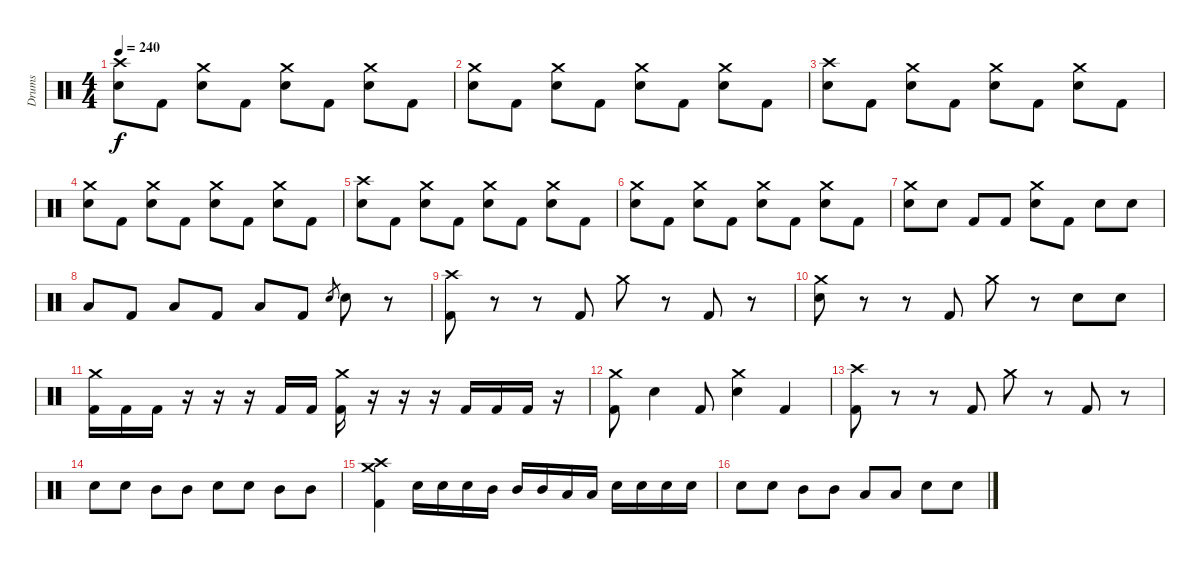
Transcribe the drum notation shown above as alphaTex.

\track ("Drums" "Drums") {instrument percussion}
\staff {score}
\articulation defaults
\ts (4 4)
\tempo 240
\clef neutral
\ks c
("Electric Snare (hit)" "Crash high (hit)").8{dy f} "Kick (hit) 2".8 ("Electric Snare (hit)" "Crash medium (hit)").8 "Kick (hit) 2".8 ("Electric Snare (hit)" "Crash medium (hit)").8 "Kick (hit) 2".8 ("Electric Snare (hit)" "Crash medium (hit)").8 "Kick (hit) 2".8 |
("Electric Snare (hit)" "Crash medium (hit)").8 "Kick (hit) 2".8 ("Electric Snare (hit)" "Crash medium (hit)").8 "Kick (hit) 2".8 ("Electric Snare (hit)" "Crash medium (hit)").8 "Kick (hit) 2".8 ("Electric Snare (hit)" "Crash medium (hit)").8 "Kick (hit) 2".8 |
("Electric Snare (hit)" "Crash high (hit)").8 "Kick (hit) 2".8 ("Electric Snare (hit)" "Crash medium (hit)").8 "Kick (hit) 2".8 ("Electric Snare (hit)" "Crash medium (hit)").8 "Kick (hit) 2".8 ("Electric Snare (hit)" "Crash medium (hit)").8 "Kick (hit) 2".8 |
("Electric Snare (hit)" "Crash medium (hit)").8 "Kick (hit) 2".8 ("Electric Snare (hit)" "Crash medium (hit)").8 "Kick (hit) 2".8 ("Electric Snare (hit)" "Crash medium (hit)").8 "Kick (hit) 2".8 ("Electric Snare (hit)" "Crash medium (hit)").8 "Kick (hit) 2".8 |
("Electric Snare (hit)" "Crash high (hit)").8 "Kick (hit) 2".8 ("Electric Snare (hit)" "Crash medium (hit)").8 "Kick (hit) 2".8 ("Electric Snare (hit)" "Crash medium (hit)").8 "Kick (hit) 2".8 ("Electric Snare (hit)" "Crash medium (hit)").8 "Kick (hit) 2".8 |
("Electric Snare (hit)" "Crash medium (hit)").8 "Kick (hit) 2".8 ("Electric Snare (hit)" "Crash medium (hit)").8 "Kick (hit) 2".8 ("Electric Snare (hit)" "Crash medium (hit)").8 "Kick (hit) 2".8 ("Electric Snare (hit)" "Crash medium (hit)").8 "Kick (hit) 2".8 |
("Electric Snare (hit)" "Crash medium (hit)").8 "Electric Snare (hit)".8 "Kick (hit) 2".8 "Kick (hit) 2".8 ("Electric Snare (hit)" "Crash medium (hit)").8 "Kick (hit) 2".8 "Electric Snare (hit)".8 "Electric Snare (hit)".8 |
"Low Tom (hit)".8 "Kick (hit) 2".8 "Low Tom (hit)".8 "Kick (hit) 2".8 "Low Tom (hit)".8 "Kick (hit) 2".8 "Electric Snare (hit)".8{gr} "Electric Snare (hit)".8 r.8 |
("Kick (hit) 2" "Crash high (hit)").8 r.8 r.8 "Kick (hit) 2".8 "Crash medium (hit)".8 r.8 "Kick (hit) 2".8 r.8 |
("Electric Snare (hit)" "Crash medium (hit)").8 r.8 r.8 "Kick (hit) 2".8 "Crash medium (hit)".8 r.8 "Electric Snare (hit)".8 "Electric Snare (hit)".8 |
("Kick (hit) 2" "Crash medium (hit)").16 "Kick (hit) 2".16 "Kick (hit) 2".16 r.16 r.16 r.16 "Kick (hit) 2".16 "Kick (hit) 2".16 ("Kick (hit) 2" "Crash medium (hit)").16 r.16 r.16 r.16 "Kick (hit) 2".16 "Kick (hit) 2".16 "Kick (hit) 2".16 r.16 |
("Kick (hit) 2" "Crash medium (hit)").8 "Electric Snare (hit)".4 "Kick (hit) 2".8 ("Electric Snare (hit)" "Crash medium (hit)").4 "Kick (hit) 2".4 |
("Kick (hit) 2" "Crash high (hit)").8 r.8 r.8 "Kick (hit) 2".8 "Crash medium (hit)".8 r.8 "Kick (hit) 2".8 r.8 |
"Electric Snare (hit)".8 "Electric Snare (hit)".8 "Mid Tom (hit)".8 "Mid Tom (hit)".8 "Electric Snare (hit)".8 "Electric Snare (hit)".8 "Mid Tom (hit)".8 "Mid Tom (hit)".8 |
("Kick (hit) 2" "Crash medium (hit)" "Crash high (hit)").4 "Electric Snare (hit)".16 "Electric Snare (hit)".16 "Electric Snare (hit)".16 "Mid Tom (hit)".16 "Mid Tom (hit)".16 "Mid Tom (hit)".16 "Low Tom (hit)".16 "Low Tom (hit)".16 "Electric Snare (hit)".16 "Electric Snare (hit)".16 "Electric Snare (hit)".16 "Electric Snare (hit)".16 |
"Electric Snare (hit)".8 "Electric Snare (hit)".8 "Mid Tom (hit)".8 "Mid Tom (hit)".8 "Low Tom (hit)".8 "Low Tom (hit)".8 "Electric Snare (hit)".8 "Electric Snare (hit)".8
